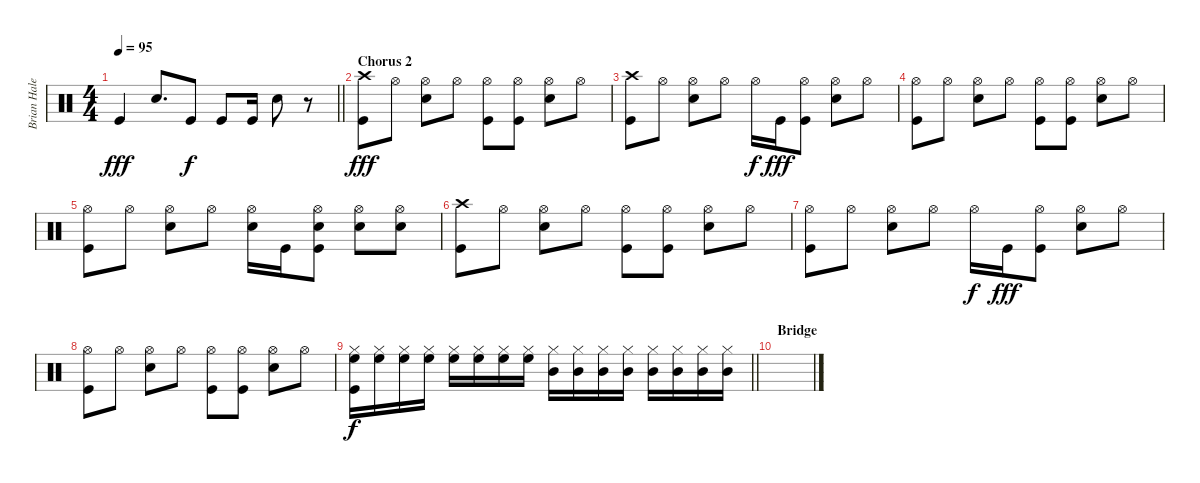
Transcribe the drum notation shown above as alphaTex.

\track ("Brian Haley" "Brian Hale") {instrument percussion}
\staff {score}
\articulation defaults
\ts (4 4)
\tempo 95
\clef neutral
\barLineRight lightlight
\ks c "Kick (hit)".4{dy fff} "Hand Clap (hit)".8{d} "Kick (hit)".8{dy f} "Kick (hit)".8 "Kick (hit)".16 "Hand Clap (hit)".8
r.8 |
\section ("" "Chorus 2")
("Crash high (hit)" "Kick (hit)").8{dy fff} "Hi-Hat (open)".8 ("Hi-Hat (open)" "Hand Clap (hit)").8 "Hi-Hat (open)".8 ("Hi-Hat (open)" "Kick (hit)").8 ("Hi-Hat (open)" "Kick (hit)").8 ("Hi-Hat (open)" "Hand Clap (hit)").8 "Hi-Hat (open)".8 |
("Crash high (hit)" "Kick (hit)").8 "Hi-Hat (open)".8 ("Hi-Hat (open)" "Hand Clap (hit)").8 "Hi-Hat (open)".8 "Hi-Hat (open)".16{dy f} "Kick (hit)".16{dy fff} ("Hi-Hat (open)" "Kick (hit)").8 ("Hi-Hat (open)" "Hand Clap (hit)").8 "Hi-Hat (open)".8 |
("Hi-Hat (open)" "Kick (hit)").8 "Hi-Hat (open)".8 ("Hi-Hat (open)" "Hand Clap (hit)").8 "Hi-Hat (open)".8 ("Hi-Hat (open)" "Kick (hit)").8 ("Hi-Hat (open)" "Kick (hit)").8 ("Hi-Hat (open)" "Hand Clap (hit)").8 "Hi-Hat (open)".8 |
("Hi-Hat (open)" "Kick (hit)").8 "Hi-Hat (open)".8 ("Hi-Hat (open)" "Hand Clap (hit)").8 "Hi-Hat (open)".8 ("Hi-Hat (open)" "Snare (hit) 2").16 "Kick (hit)".16 ("Hi-Hat (open)" "Kick (hit)" "Snare (hit) 2").8 ("Hi-Hat (open)" "Hand Clap (hit)").8 ("Hi-Hat (open)" "Snare (hit) 2").8 |
("Crash high (hit)" "Kick (hit)").8 "Hi-Hat (open)".8 ("Hi-Hat (open)" "Hand Clap (hit)").8 "Hi-Hat (open)".8 ("Hi-Hat (open)" "Kick (hit)").8 ("Hi-Hat (open)" "Kick (hit)").8 ("Hi-Hat (open)" "Hand Clap (hit)").8 "Hi-Hat (open)".8 |
("Hi-Hat (open)" "Kick (hit)").8 "Hi-Hat (open)".8 ("Hi-Hat (open)" "Hand Clap (hit)").8 "Hi-Hat (open)".8 "Hi-Hat (open)".16{dy f} "Kick (hit)".16{dy fff} ("Hi-Hat (open)" "Kick (hit)").8 ("Hi-Hat (open)" "Hand Clap (hit)").8 "Hi-Hat (open)".8 |
("Hi-Hat (open)" "Kick (hit)").8 "Hi-Hat (open)".8 ("Hi-Hat (open)" "Hand Clap (hit)").8 "Hi-Hat (open)".8 ("Hi-Hat (open)" "Kick (hit)").8 ("Hi-Hat (open)" "Kick (hit)").8 ("Hi-Hat (open)" "Hand Clap (hit)").8 "Hi-Hat (open)".8 |
\barLineRight lightlight
("High Floor Tom (hit)" "Hi-Hat (closed)" "Kick (hit)").16{dy f} ("High Floor Tom (hit)" "Hi-Hat (closed)").16 ("High Floor Tom (hit)" "Hi-Hat (closed)").16 ("High Floor Tom (hit)" "Hi-Hat (closed)").16 ("High Floor Tom (hit)" "Hi-Hat (closed)").16 ("High Floor Tom (hit)" "Hi-Hat (closed)").16 ("High Floor Tom (hit)" "Hi-Hat (closed)").16 ("High Floor Tom (hit)" "Hi-Hat (closed)").16 ("Mid Tom (hit)" "Hi-Hat (closed)").16 ("Mid Tom (hit)" "Hi-Hat (closed)").16 ("Mid Tom (hit)" "Hi-Hat (closed)").16 ("Mid Tom (hit)" "Hi-Hat (closed)").16 ("Mid Tom (hit)" "Hi-Hat (closed)").16 ("Mid Tom (hit)" "Hi-Hat (closed)").16 ("Mid Tom (hit)" "Hi-Hat (closed)").16 ("Mid Tom (hit)" "Hi-Hat (closed)").16 |
\section ("" "Bridge")
